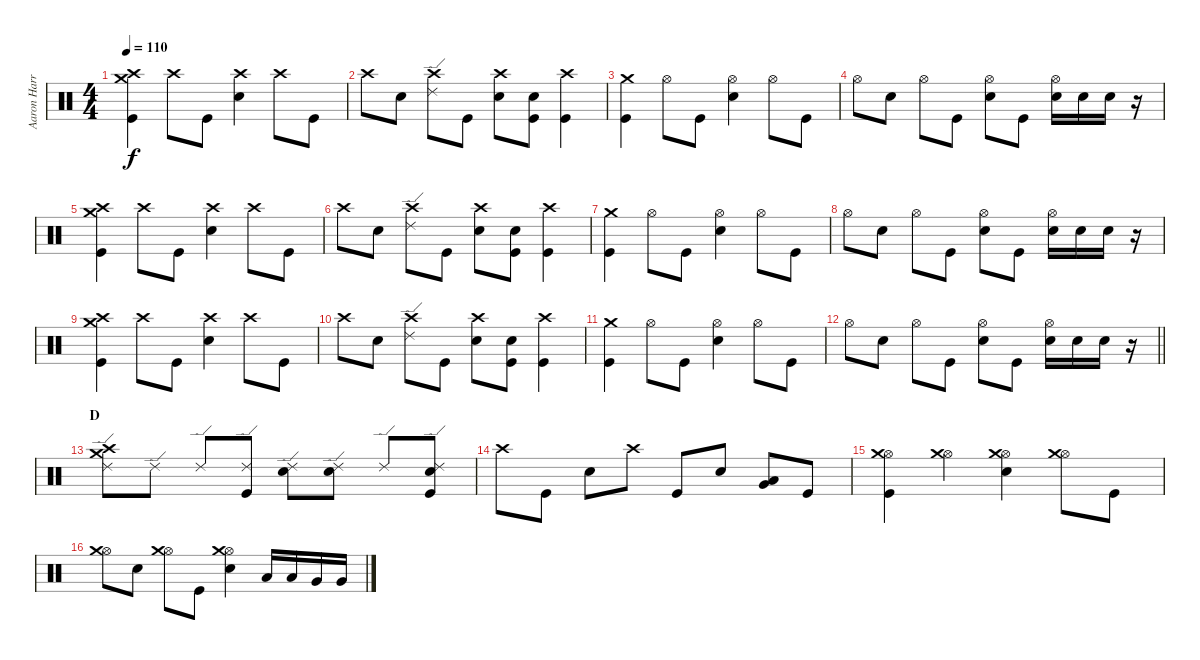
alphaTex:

\track ("Aaron Harris" "Aaron Harr") {instrument percussion}
\staff {score}
\articulation defaults
\ts (4 4)
\tempo 110
\clef neutral
\ks c
("Crash high (hit)" "Crash medium (hit)" "Kick (hit)").4{dy f} "Crash high (hit)".8 "Kick (hit)".8 ("Crash high (hit)" "Snare (hit) 2").4 "Crash high (hit)".8 "Kick (hit)".8 |
"Crash high (hit)".8 "Snare (hit) 2".8 ("Crash high (hit)" "Ride (edge) 2").8 "Kick (hit)".8 ("Crash high (hit)" "Snare (hit) 2").8 ("Snare (hit) 2" "Kick (hit)").8 ("Crash high (hit)" "Kick (hit)").4 |
("Crash medium (hit)" "Kick (hit)").4 "Hi-Hat (open)".8 "Kick (hit)".8 ("Hi-Hat (open)" "Snare (hit) 2").4 "Hi-Hat (open)".8 "Kick (hit)".8 |
"Hi-Hat (open)".8 "Snare (hit) 2".8 "Hi-Hat (open)".8 "Kick (hit)".8 ("Hi-Hat (open)" "Snare (hit) 2").8 "Kick (hit)".8 ("Hi-Hat (open)" "Snare (hit) 2").16 "Snare (hit) 2".16 "Snare (hit) 2".16 r.16 |
("Crash high (hit)" "Crash medium (hit)" "Kick (hit)").4 "Crash high (hit)".8 "Kick (hit)".8 ("Crash high (hit)" "Snare (hit) 2").4 "Crash high (hit)".8 "Kick (hit)".8 |
"Crash high (hit)".8 "Snare (hit) 2".8 ("Crash high (hit)" "Ride (edge) 2").8 "Kick (hit)".8 ("Crash high (hit)" "Snare (hit) 2").8 ("Snare (hit) 2" "Kick (hit)").8 ("Crash high (hit)" "Kick (hit)").4 |
("Crash medium (hit)" "Kick (hit)").4 "Hi-Hat (open)".8 "Kick (hit)".8 ("Hi-Hat (open)" "Snare (hit) 2").4 "Hi-Hat (open)".8 "Kick (hit)".8 |
"Hi-Hat (open)".8 "Snare (hit) 2".8 "Hi-Hat (open)".8 "Kick (hit)".8 ("Hi-Hat (open)" "Snare (hit) 2").8 "Kick (hit)".8 ("Hi-Hat (open)" "Snare (hit) 2").16 "Snare (hit) 2".16 "Snare (hit) 2".16 r.16 |
("Crash high (hit)" "Crash medium (hit)" "Kick (hit)").4 "Crash high (hit)".8 "Kick (hit)".8 ("Crash high (hit)" "Snare (hit) 2").4 "Crash high (hit)".8 "Kick (hit)".8 |
"Crash high (hit)".8 "Snare (hit) 2".8 ("Crash high (hit)" "Ride (edge) 2").8 "Kick (hit)".8 ("Crash high (hit)" "Snare (hit) 2").8 ("Snare (hit) 2" "Kick (hit)").8 ("Crash high (hit)" "Kick (hit)").4 |
("Crash medium (hit)" "Kick (hit)").4 "Hi-Hat (open)".8 "Kick (hit)".8 ("Hi-Hat (open)" "Snare (hit) 2").4 "Hi-Hat (open)".8 "Kick (hit)".8 |
\barLineRight lightlight "Hi-Hat (open)".8 "Snare (hit) 2".8 "Hi-Hat (open)".8 "Kick (hit)".8
("Hi-Hat (open)" "Snare (hit) 2").8 "Kick (hit)".8 ("Hi-Hat (open)" "Snare (hit) 2").16 "Snare (hit) 2".16 "Snare (hit) 2".16 r.16 |
\section ("" "D")
("Ride (edge) 2" "Crash medium (hit)" "Crash high (hit)").8 "Ride (edge) 2".8 "Ride (edge) 2".8 ("Ride (edge) 2" "Kick (hit)").8 ("Ride (edge) 2" "Snare (hit) 2").8 ("Ride (edge) 2" "Snare (hit) 2").8 "Ride (edge) 2".8 ("Ride (edge) 2" "Snare (hit) 2" "Kick (hit)").8 |
"Crash high (hit)".8 "Kick (hit)".8 "Snare (hit) 2".8 "Crash high (hit)".8 "Kick (hit)".8 "Snare (hit) 2".8 ("Very Low Tom (hit)" "Low Tom (hit)").8 "Kick (hit)".8 |
("Hi-Hat (open)" "Crash medium (hit)" "Kick (hit)").4 ("Hi-Hat (open)" "Crash medium (hit)").4 ("Hi-Hat (open)" "Crash medium (hit)" "Snare (hit) 2").4 ("Hi-Hat (open)" "Crash medium (hit)").8 "Kick (hit)".8 |
("Hi-Hat (open)" "Crash medium (hit)").8 "Snare (hit) 2".8 ("Hi-Hat (open)" "Crash medium (hit)").8 "Kick (hit)".8 ("Hi-Hat (open)" "Crash medium (hit)" "Snare (hit) 2").4 "Low Tom (hit)".16 "Low Tom (hit)".16 "Very Low Tom (hit)".16 "Very Low Tom (hit)".16
